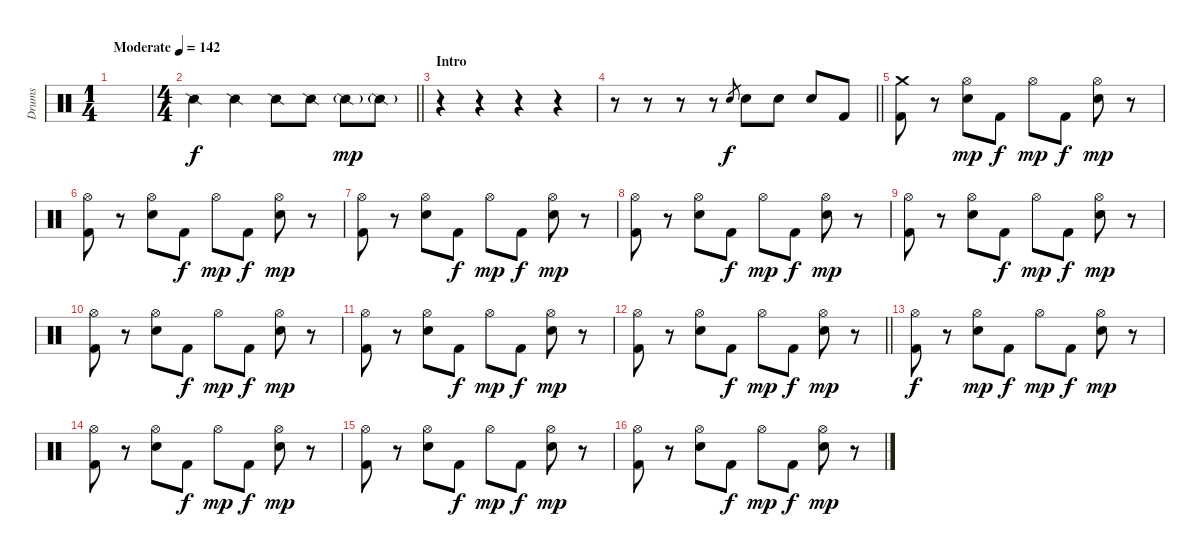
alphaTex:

\track ("Drums" "Drums") {instrument percussion}
\staff {score}
\articulation defaults
\ts (1 4)
\tempo (142 "Moderate")
\clef neutral
\ks c
|
\ts (4 4)
\barLineRight lightlight "Snare (side stick) 2".4 "Snare (side stick) 2".4 "Snare (side stick) 2".8 "Snare (side stick) 2".8 "Snare (side stick) 2"{g}.8{dy mp} "Snare (side stick) 2"{g}.8
|
\section ("" "Intro")
r.4 r.4 r.4 r.4 |
\barLineRight lightlight
r.8 r.8 r.8 r.8 "Snare (hit) 2".8{gr dy f} "Snare (hit) 2".8 "Snare (hit) 2".8 "Snare (hit) 2".8 "Kick (hit) 2".8 |
("Crash medium (hit)" "Kick (hit) 2").8 r.8 ("Hi-Hat (open)" "Snare (hit) 2").8{dy mp} "Kick (hit) 2".8{dy f} "Hi-Hat (open)".8{dy mp} "Kick (hit) 2".8{dy f} ("Hi-Hat (open)" "Snare (hit) 2").8{dy mp} r.8 |
("Hi-Hat (open)" "Kick (hit) 2").8 r.8 ("Hi-Hat (open)" "Snare (hit) 2").8 "Kick (hit) 2".8{dy f} "Hi-Hat (open)".8{dy mp} "Kick (hit) 2".8{dy f} ("Hi-Hat (open)" "Snare (hit) 2").8{dy mp} r.8 |
("Hi-Hat (open)" "Kick (hit) 2").8 r.8 ("Hi-Hat (open)" "Snare (hit) 2").8 "Kick (hit) 2".8{dy f} "Hi-Hat (open)".8{dy mp} "Kick (hit) 2".8{dy f} ("Hi-Hat (open)" "Snare (hit) 2").8{dy mp} r.8 |
("Hi-Hat (open)" "Kick (hit) 2").8 r.8 ("Hi-Hat (open)" "Snare (hit) 2").8 "Kick (hit) 2".8{dy f} "Hi-Hat (open)".8{dy mp} "Kick (hit) 2".8{dy f} ("Hi-Hat (open)" "Snare (hit) 2").8{dy mp} r.8 |
("Hi-Hat (open)" "Kick (hit) 2").8 r.8 ("Hi-Hat (open)" "Snare (hit) 2").8 "Kick (hit) 2".8{dy f} "Hi-Hat (open)".8{dy mp} "Kick (hit) 2".8{dy f} ("Hi-Hat (open)" "Snare (hit) 2").8{dy mp} r.8 |
("Hi-Hat (open)" "Kick (hit) 2").8 r.8 ("Hi-Hat (open)" "Snare (hit) 2").8 "Kick (hit) 2".8{dy f} "Hi-Hat (open)".8{dy mp} "Kick (hit) 2".8{dy f} ("Hi-Hat (open)" "Snare (hit) 2").8{dy mp} r.8 |
("Hi-Hat (open)" "Kick (hit) 2").8 r.8 ("Hi-Hat (open)" "Snare (hit) 2").8 "Kick (hit) 2".8{dy f} "Hi-Hat (open)".8{dy mp} "Kick (hit) 2".8{dy f} ("Hi-Hat (open)" "Snare (hit) 2").8{dy mp} r.8 |
\barLineRight lightlight
("Hi-Hat (open)" "Kick (hit) 2").8 r.8 ("Hi-Hat (open)" "Snare (hit) 2").8 "Kick (hit) 2".8{dy f} "Hi-Hat (open)".8{dy mp} "Kick (hit) 2".8{dy f} ("Hi-Hat (open)" "Snare (hit) 2").8{dy mp} r.8 |
("Hi-Hat (open)" "Kick (hit) 2").8{dy f} r.8 ("Hi-Hat (open)" "Snare (hit) 2").8{dy mp} "Kick (hit) 2".8{dy f} "Hi-Hat (open)".8{dy mp} "Kick (hit) 2".8{dy f} ("Hi-Hat (open)" "Snare (hit) 2").8{dy mp} r.8 |
("Hi-Hat (open)" "Kick (hit) 2").8 r.8 ("Hi-Hat (open)" "Snare (hit) 2").8 "Kick (hit) 2".8{dy f} "Hi-Hat (open)".8{dy mp} "Kick (hit) 2".8{dy f} ("Hi-Hat (open)" "Snare (hit) 2").8{dy mp} r.8 |
("Hi-Hat (open)" "Kick (hit) 2").8 r.8 ("Hi-Hat (open)" "Snare (hit) 2").8 "Kick (hit) 2".8{dy f} "Hi-Hat (open)".8{dy mp} "Kick (hit) 2".8{dy f} ("Hi-Hat (open)" "Snare (hit) 2").8{dy mp} r.8 |
("Hi-Hat (open)" "Kick (hit) 2").8 r.8 ("Hi-Hat (open)" "Snare (hit) 2").8 "Kick (hit) 2".8{dy f} "Hi-Hat (open)".8{dy mp} "Kick (hit) 2".8{dy f} ("Hi-Hat (open)" "Snare (hit) 2").8{dy mp} r.8
